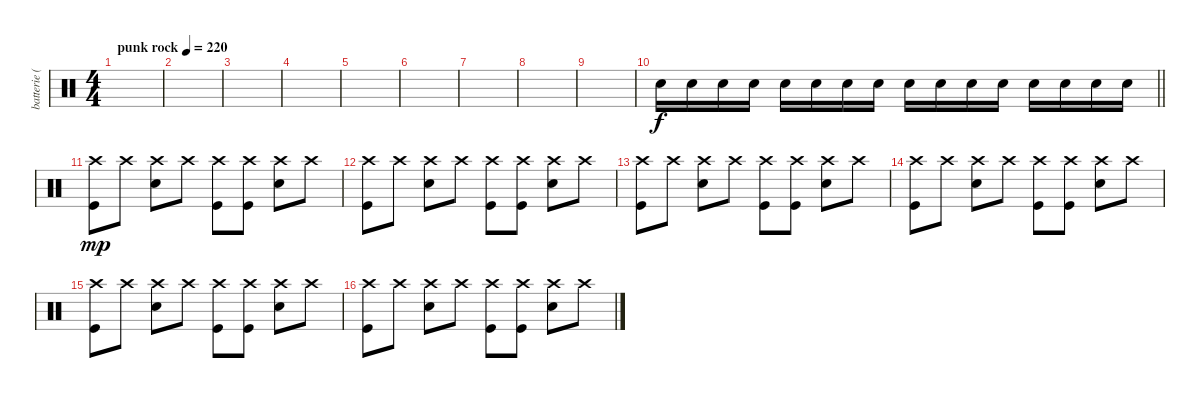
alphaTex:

\track ("batterie ( Guillaume ) " "batterie (") {instrument percussion}
\staff {score}
\articulation defaults
\ts (4 4)
\tempo (220 "punk rock")
\clef neutral
\ks c
|
|
|
|
|
|
|
|
|
\barLineRight lightlight "Snare (hit) 2".16 "Snare (hit) 2".16 "Snare (hit) 2".16 "Snare (hit) 2".16 "Snare (hit) 2".16 "Snare (hit) 2".16 "Snare (hit) 2".16 "Snare (hit) 2".16 "Snare (hit) 2".16 "Snare (hit) 2".16 "Snare (hit) 2".16 "Snare (hit) 2".16 "Snare (hit) 2".16 "Snare (hit) 2".16 "Snare (hit) 2".16 "Snare (hit) 2".16
|
("Crash high (hit)" "Kick (hit)").8{dy mp} "Crash high (hit)".8 ("Crash high (hit)" "Snare (hit) 2").8 "Crash high (hit)".8 ("Crash high (hit)" "Kick (hit)").8 ("Crash high (hit)" "Kick (hit)").8 ("Crash high (hit)" "Snare (hit) 2").8 "Crash high (hit)".8 |
("Crash high (hit)" "Kick (hit)").8 "Crash high (hit)".8 ("Crash high (hit)" "Snare (hit) 2").8 "Crash high (hit)".8 ("Crash high (hit)" "Kick (hit)").8 ("Crash high (hit)" "Kick (hit)").8 ("Crash high (hit)" "Snare (hit) 2").8 "Crash high (hit)".8 |
("Crash high (hit)" "Kick (hit)").8 "Crash high (hit)".8 ("Crash high (hit)" "Snare (hit) 2").8 "Crash high (hit)".8 ("Crash high (hit)" "Kick (hit)").8 ("Crash high (hit)" "Kick (hit)").8 ("Crash high (hit)" "Snare (hit) 2").8 "Crash high (hit)".8 |
("Crash high (hit)" "Kick (hit)").8 "Crash high (hit)".8 ("Crash high (hit)" "Snare (hit) 2").8 "Crash high (hit)".8 ("Crash high (hit)" "Kick (hit)").8 ("Crash high (hit)" "Kick (hit)").8 ("Crash high (hit)" "Snare (hit) 2").8 "Crash high (hit)".8 |
("Crash high (hit)" "Kick (hit)").8 "Crash high (hit)".8 ("Crash high (hit)" "Snare (hit) 2").8 "Crash high (hit)".8 ("Crash high (hit)" "Kick (hit)").8 ("Crash high (hit)" "Kick (hit)").8 ("Crash high (hit)" "Snare (hit) 2").8 "Crash high (hit)".8 |
("Crash high (hit)" "Kick (hit)").8 "Crash high (hit)".8 ("Crash high (hit)" "Snare (hit) 2").8 "Crash high (hit)".8 ("Crash high (hit)" "Kick (hit)").8 ("Crash high (hit)" "Kick (hit)").8 ("Crash high (hit)" "Snare (hit) 2").8 "Crash high (hit)".8
